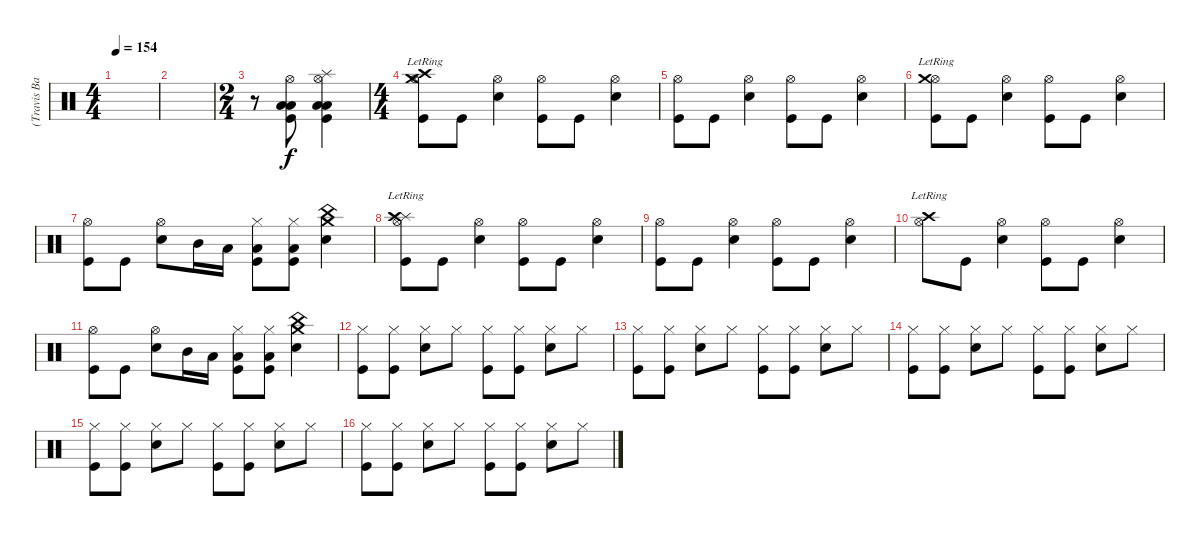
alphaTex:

\track ("(Travis Barker) Drums" "(Travis Ba") {instrument percussion}
\staff {score}
\articulation defaults
\ts (4 4)
\tempo 154
\clef neutral
\ks c
|
|
\ts (2 4)
r.8 ("Hi-Hat (open)" "Low Floor Tom (hit)" "Low Tom (hit)" "Kick (hit)").8 ("Hi-Hat (open)" "Low Floor Tom (hit)" "Low Tom (hit)" "Kick (hit)" "Splash (hit)").4 |
\ts (4 4)
("Crash high (hit)"{lr} "Hi-Hat (open)" "Crash medium (hit)"{lr} "Kick (hit)").8 "Kick (hit)".8 ("Hi-Hat (open)" "Snare (hit) 2").4 ("Hi-Hat (open)" "Kick (hit)").8 "Kick (hit)".8 ("Hi-Hat (open)" "Snare (hit) 2").4 |
("Hi-Hat (open)" "Kick (hit)").8 "Kick (hit)".8 ("Hi-Hat (open)" "Snare (hit) 2").4 ("Hi-Hat (open)" "Kick (hit)").8 "Kick (hit)".8 ("Hi-Hat (open)" "Snare (hit) 2").4 |
("Hi-Hat (open)" "Crash medium (hit)"{lr} "Kick (hit)").8 "Kick (hit)".8 ("Hi-Hat (open)" "Snare (hit) 2").4 ("Hi-Hat (open)" "Kick (hit)").8 "Kick (hit)".8 ("Hi-Hat (open)" "Snare (hit) 2").4 |
("Hi-Hat (open)" "Kick (hit)").8 "Kick (hit)".8 ("Hi-Hat (open)" "Snare (hit) 2").8 "Mid Tom (hit)".16 "Low Tom (hit)".16 ("Hi-Hat (closed)" "Low Floor Tom (hit)" "Kick (hit)").8 ("Hi-Hat (closed)" "Low Floor Tom (hit)" "Kick (hit)").8 ("Crash medium (hit)" "China (hit)" "Snare (hit) 2").4 |
("Splash (hit)" "Hi-Hat (open)" "Crash high (hit)"{lr} "Kick (hit)").8 "Kick (hit)".8 ("Hi-Hat (open)" "Snare (hit) 2").4 ("Hi-Hat (open)" "Kick (hit)").8 "Kick (hit)".8 ("Hi-Hat (open)" "Snare (hit) 2").4 |
("Hi-Hat (open)" "Kick (hit)").8 "Kick (hit)".8 ("Hi-Hat (open)" "Snare (hit) 2").4 ("Hi-Hat (open)" "Kick (hit)").8 "Kick (hit)".8 ("Hi-Hat (open)" "Snare (hit) 2").4 |
("Crash high (hit)"{lr} "Hi-Hat (open)").8 "Kick (hit)".8 ("Hi-Hat (open)" "Snare (hit) 2").4 ("Hi-Hat (open)" "Kick (hit)").8 "Kick (hit)".8 ("Hi-Hat (open)" "Snare (hit) 2").4 |
("Hi-Hat (open)" "Kick (hit)").8 "Kick (hit)".8 ("Hi-Hat (open)" "Snare (hit) 2").8 "Mid Tom (hit)".16 "Low Tom (hit)".16 ("Hi-Hat (closed)" "Low Floor Tom (hit)" "Kick (hit)").8 ("Hi-Hat (closed)" "Low Floor Tom (hit)" "Kick (hit)").8 ("Crash medium (hit)" "China (hit)" "Snare (hit) 2").4 |
("Hi-Hat (closed)" "Kick (hit)").8 ("Hi-Hat (closed)" "Kick (hit)").8 ("Hi-Hat (closed)" "Snare (hit) 2").8 "Hi-Hat (closed)".8 ("Hi-Hat (closed)" "Kick (hit)").8 ("Hi-Hat (closed)" "Kick (hit)").8 ("Hi-Hat (closed)" "Snare (hit) 2").8 "Hi-Hat (closed)".8 |
("Hi-Hat (closed)" "Kick (hit)").8 ("Hi-Hat (closed)" "Kick (hit)").8 ("Hi-Hat (closed)" "Snare (hit) 2").8 "Hi-Hat (closed)".8 ("Hi-Hat (closed)" "Kick (hit)").8 ("Hi-Hat (closed)" "Kick (hit)").8 ("Hi-Hat (closed)" "Snare (hit) 2").8 "Hi-Hat (closed)".8 |
("Hi-Hat (closed)" "Kick (hit)").8 ("Hi-Hat (closed)" "Kick (hit)").8 ("Hi-Hat (closed)" "Snare (hit) 2").8 "Hi-Hat (closed)".8 ("Hi-Hat (closed)" "Kick (hit)").8 ("Hi-Hat (closed)" "Kick (hit)").8 ("Hi-Hat (closed)" "Snare (hit) 2").8 "Hi-Hat (closed)".8 |
("Hi-Hat (closed)" "Kick (hit)").8 ("Hi-Hat (closed)" "Kick (hit)").8 ("Hi-Hat (closed)" "Snare (hit) 2").8 "Hi-Hat (closed)".8 ("Hi-Hat (closed)" "Kick (hit)").8 ("Hi-Hat (closed)" "Kick (hit)").8 ("Hi-Hat (closed)" "Snare (hit) 2").8 "Hi-Hat (closed)".8 |
("Hi-Hat (closed)" "Kick (hit)").8 ("Hi-Hat (closed)" "Kick (hit)").8 ("Hi-Hat (closed)" "Snare (hit) 2").8 "Hi-Hat (closed)".8 ("Hi-Hat (closed)" "Kick (hit)").8 ("Hi-Hat (closed)" "Kick (hit)").8 ("Hi-Hat (closed)" "Snare (hit) 2").8 "Hi-Hat (closed)".8
